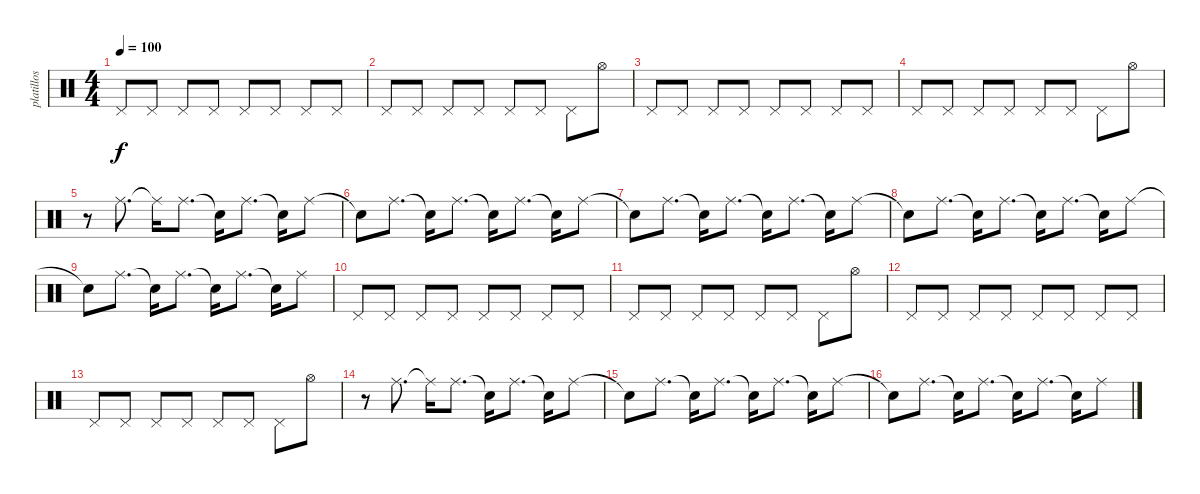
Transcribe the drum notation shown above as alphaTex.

\track ("platillos" "platillos") {instrument percussion}
\staff {score}
\articulation defaults
\ts (4 4)
\tempo 100
\clef neutral
\ks c "Pedal Hi-Hat (hit)".8{dy f} "Pedal Hi-Hat (hit)".8 "Pedal Hi-Hat (hit)".8 "Pedal Hi-Hat (hit)".8 "Pedal Hi-Hat (hit)".8 "Pedal Hi-Hat (hit)".8 "Pedal Hi-Hat (hit)".8 "Pedal Hi-Hat (hit)".8
|
"Pedal Hi-Hat (hit)".8 "Pedal Hi-Hat (hit)".8 "Pedal Hi-Hat (hit)".8 "Pedal Hi-Hat (hit)".8 "Pedal Hi-Hat (hit)".8 "Pedal Hi-Hat (hit)".8 "Pedal Hi-Hat (hit)".8 "Hi-Hat (open)".8 |
"Pedal Hi-Hat (hit)".8 "Pedal Hi-Hat (hit)".8 "Pedal Hi-Hat (hit)".8 "Pedal Hi-Hat (hit)".8 "Pedal Hi-Hat (hit)".8 "Pedal Hi-Hat (hit)".8 "Pedal Hi-Hat (hit)".8 "Pedal Hi-Hat (hit)".8 |
"Pedal Hi-Hat (hit)".8 "Pedal Hi-Hat (hit)".8 "Pedal Hi-Hat (hit)".8 "Pedal Hi-Hat (hit)".8 "Pedal Hi-Hat (hit)".8 "Pedal Hi-Hat (hit)".8 "Pedal Hi-Hat (hit)".8 "Hi-Hat (open)".8 |
r.8 "Ride (middle)".8{d} "Ride (middle)"{t}.16 "Ride (middle)".8{d} "Snare (hit)"{t}.16 "Ride (middle)".8{d} "Snare (hit)"{t}.16 "Ride (middle)".8 |
"Snare (hit)"{t}.8 "Ride (middle)".8{d} "Snare (hit)"{t}.16 "Ride (middle)".8{d} "Snare (hit)"{t}.16 "Ride (middle)".8{d} "Snare (hit)"{t}.16 "Ride (middle)".8 |
"Snare (hit)"{t}.8 "Ride (middle)".8{d} "Snare (hit)"{t}.16 "Ride (middle)".8{d} "Snare (hit)"{t}.16 "Ride (middle)".8{d} "Snare (hit)"{t}.16 "Ride (middle)".8 |
"Snare (hit)"{t}.8 "Ride (middle)".8{d} "Snare (hit)"{t}.16 "Ride (middle)".8{d} "Snare (hit)"{t}.16 "Ride (middle)".8{d} "Snare (hit)"{t}.16 "Ride (middle)".8 |
"Snare (hit)"{t}.8 "Ride (middle)".8{d} "Snare (hit)"{t}.16 "Ride (middle)".8{d} "Snare (hit)"{t}.16 "Ride (middle)".8{d} "Snare (hit)"{t}.16 "Ride (middle)".8 |
"Pedal Hi-Hat (hit)".8 "Pedal Hi-Hat (hit)".8 "Pedal Hi-Hat (hit)".8 "Pedal Hi-Hat (hit)".8 "Pedal Hi-Hat (hit)".8 "Pedal Hi-Hat (hit)".8 "Pedal Hi-Hat (hit)".8 "Pedal Hi-Hat (hit)".8 |
"Pedal Hi-Hat (hit)".8 "Pedal Hi-Hat (hit)".8 "Pedal Hi-Hat (hit)".8 "Pedal Hi-Hat (hit)".8 "Pedal Hi-Hat (hit)".8 "Pedal Hi-Hat (hit)".8 "Pedal Hi-Hat (hit)".8 "Hi-Hat (open)".8 |
"Pedal Hi-Hat (hit)".8 "Pedal Hi-Hat (hit)".8 "Pedal Hi-Hat (hit)".8 "Pedal Hi-Hat (hit)".8 "Pedal Hi-Hat (hit)".8 "Pedal Hi-Hat (hit)".8 "Pedal Hi-Hat (hit)".8 "Pedal Hi-Hat (hit)".8 |
"Pedal Hi-Hat (hit)".8 "Pedal Hi-Hat (hit)".8 "Pedal Hi-Hat (hit)".8 "Pedal Hi-Hat (hit)".8 "Pedal Hi-Hat (hit)".8 "Pedal Hi-Hat (hit)".8 "Pedal Hi-Hat (hit)".8 "Hi-Hat (open)".8 |
r.8 "Ride (middle)".8{d} "Ride (middle)"{t}.16 "Ride (middle)".8{d} "Snare (hit)"{t}.16 "Ride (middle)".8{d} "Snare (hit)"{t}.16 "Ride (middle)".8 |
"Snare (hit)"{t}.8 "Ride (middle)".8{d} "Snare (hit)"{t}.16 "Ride (middle)".8{d} "Snare (hit)"{t}.16 "Ride (middle)".8{d} "Snare (hit)"{t}.16 "Ride (middle)".8 |
"Snare (hit)"{t}.8 "Ride (middle)".8{d} "Snare (hit)"{t}.16 "Ride (middle)".8{d} "Snare (hit)"{t}.16 "Ride (middle)".8{d} "Snare (hit)"{t}.16 "Ride (middle)".8
